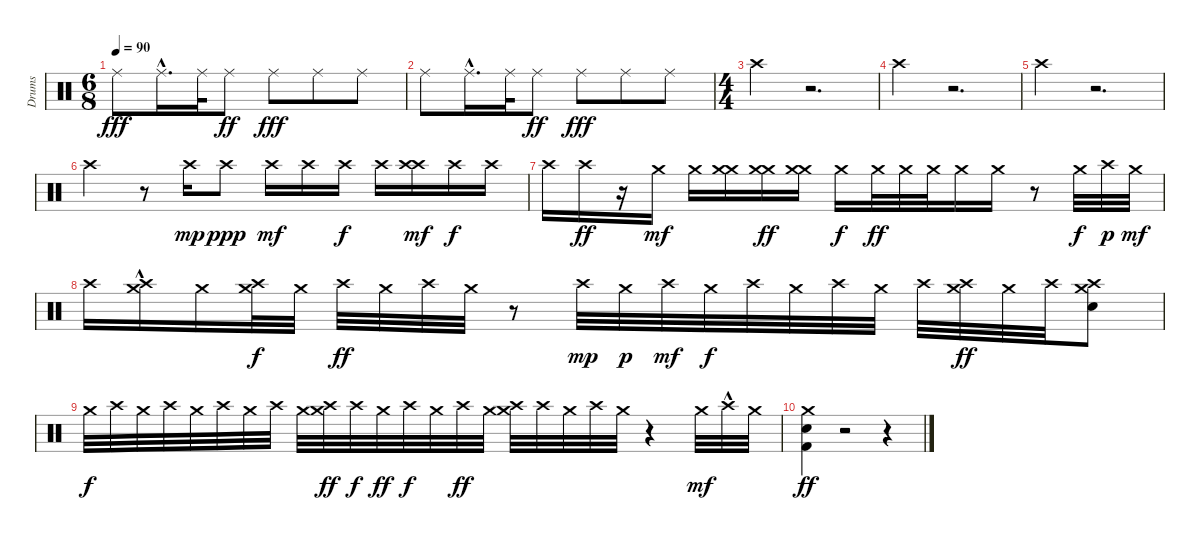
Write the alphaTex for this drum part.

\track ("Drums" "Drums") {instrument percussion}
\staff {score}
\articulation defaults
\ts (6 8)
\tempo 90
\clef neutral
\ks c "Ride (middle)".8{dy fff} "Ride (middle)"{hac}.16{d} "Ride (middle)".32 "Ride (middle)".8{dy ff} "Ride (middle)".8{dy fff} "Ride (middle)".8 "Ride (middle)".8
|
"Ride (middle)".8 "Ride (middle)"{hac}.16{d} "Ride (middle)".32 "Ride (middle)".8{dy ff} "Ride (middle)".8{dy fff} "Ride (middle)".8 "Ride (middle)".8 |
\ts (4 4)
"Crash high (hit)".4 r.2{d} |
"Crash high (hit)".4 r.2{d} |
"Crash high (hit)".4 r.2{d} |
"Crash high (hit)".4 r.8 "Crash high (hit)".16{dy mp} "Crash high (hit)".8{dy ppp} "Crash high (hit)".16{dy mf} "Crash high (hit)".16 "Crash high (hit)".16{dy f} "Crash high (hit)".16 ("Crash high (hit)" "Crash high (hit)").16{dy mf} "Crash high (hit)".16{dy f} "Crash high (hit)".16 |
"Crash high (hit)".16 "Crash high (hit)".16{dy ff} r.16 "Crash medium (hit)".16{dy mf} "Crash medium (hit)".16 ("Crash medium (hit)" "Crash medium (hit)").16 ("Crash medium (hit)" "Crash medium (hit)").16{dy ff} ("Crash medium (hit)" "Crash medium (hit)").16 "Crash medium (hit)".16{dy f} "Crash medium (hit)".32{dy ff} "Crash medium (hit)".32 "Crash medium (hit)".32 "Crash medium (hit)".16 "Crash medium (hit)".16 r.8 "Crash medium (hit)".32{dy f} "Crash high (hit)".32{dy p} "Crash medium (hit)".32{dy mf} |
"Crash high (hit)".16 ("Crash medium (hit)" "Crash high (hit)"{hac}).16 "Crash medium (hit)".16 ("Crash medium (hit)" "Crash high (hit)").32{dy f} "Crash medium (hit)".32 "Crash high (hit)".32{dy ff} "Crash medium (hit)".32 "Crash high (hit)".32 "Crash medium (hit)".32 r.8 "Crash high (hit)".32{dy mp} "Crash medium (hit)".32{dy p} "Crash high (hit)".32{dy mf} "Crash medium (hit)".32{dy f} "Crash high (hit)".32 "Crash medium (hit)".32 "Crash high (hit)".32 "Crash medium (hit)".32 "Crash high (hit)".32 ("Crash medium (hit)" "Crash high (hit)").32{dy ff} "Crash medium (hit)".32 "Crash high (hit)".32 ("Crash medium (hit)" "Crash high (hit)" "Electric Snare (hit)").8 |
"Crash medium (hit)".32{dy f} "Crash high (hit)".32 "Crash medium (hit)".32 "Crash high (hit)".32 "Crash medium (hit)".32 "Crash high (hit)".32 "Crash medium (hit)".32 "Crash high (hit)".32 "Crash medium (hit)".32 ("Crash high (hit)" "Crash medium (hit)").32{dy ff} "Crash high (hit)".32{dy f} "Crash medium (hit)".32{dy ff} "Crash high (hit)".32{dy f} "Crash medium (hit)".32 "Crash high (hit)".32{dy ff} "Crash medium (hit)".32 ("Crash high (hit)" "Crash medium (hit)").32 "Crash high (hit)".32 "Crash medium (hit)".32 "Crash high (hit)".32 "Crash medium (hit)".32 r.4 "Crash medium (hit)".32{dy mf} "Crash high (hit)"{hac}.32 "Crash medium (hit)".32 |
("Crash medium (hit)" "Kick (hit) 2" "Electric Snare (hit)").4{dy ff} r.2 r.4
